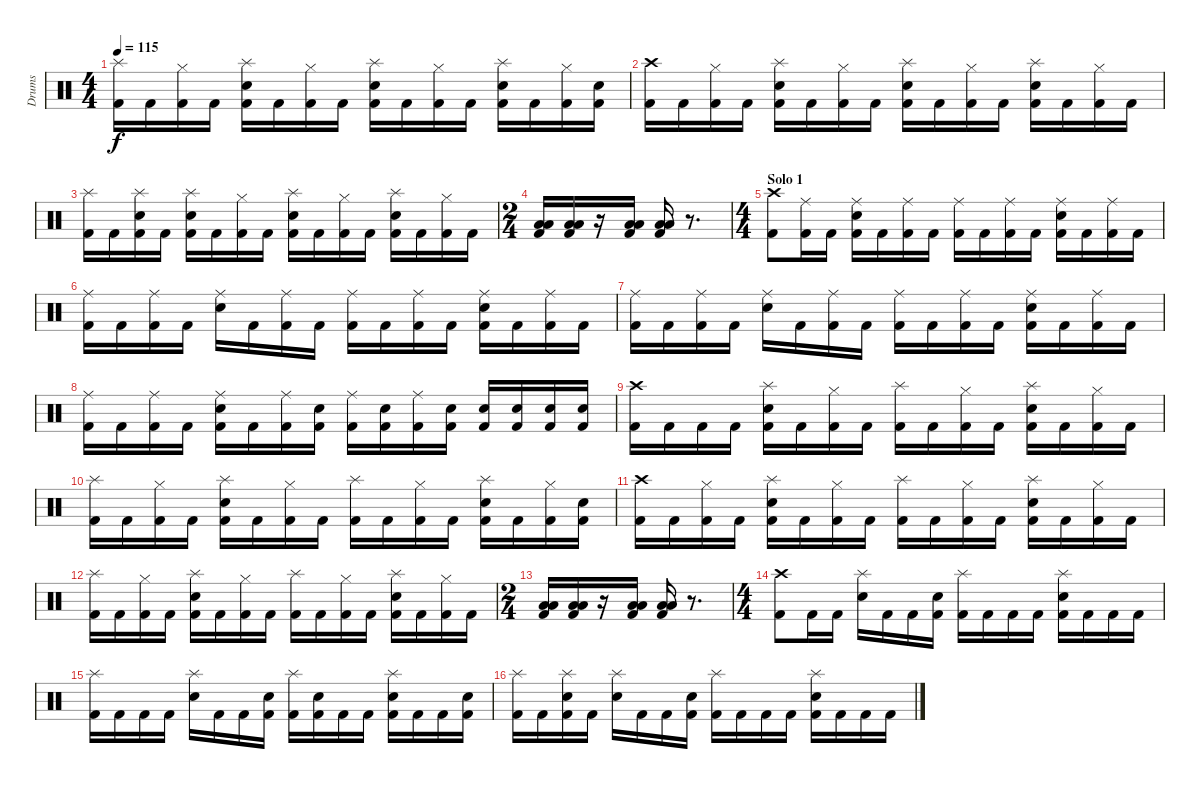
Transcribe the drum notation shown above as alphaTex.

\track ("Drums" "Drums") {instrument percussion}
\staff {score}
\articulation defaults
\ts (4 4)
\tempo 115
\clef neutral
\ks c
("Splash (hit)" "Kick (hit) 2").16{dy f} "Kick (hit) 2".16 ("Hi-Hat (closed)" "Kick (hit) 2").16 "Kick (hit) 2".16 ("Splash (hit)" "Snare (hit) 2" "Kick (hit) 2").16 "Kick (hit) 2".16 ("Hi-Hat (closed)" "Kick (hit) 2").16 "Kick (hit) 2".16 ("Splash (hit)" "Snare (hit) 2" "Kick (hit) 2").16 "Kick (hit) 2".16 ("Hi-Hat (closed)" "Kick (hit) 2").16 "Kick (hit) 2".16 ("Splash (hit)" "Snare (hit) 2" "Kick (hit) 2").16 "Kick (hit) 2".16 ("Hi-Hat (closed)" "Kick (hit) 2").16 ("Snare (hit) 2" "Kick (hit) 2").16 |
("Crash high (hit)" "Kick (hit) 2").16 "Kick (hit) 2".16 ("Hi-Hat (closed)" "Kick (hit) 2").16 "Kick (hit) 2".16 ("Splash (hit)" "Snare (hit) 2" "Kick (hit) 2").16 "Kick (hit) 2".16 ("Hi-Hat (closed)" "Kick (hit) 2").16 "Kick (hit) 2".16 ("Splash (hit)" "Snare (hit) 2" "Kick (hit) 2").16 "Kick (hit) 2".16 ("Hi-Hat (closed)" "Kick (hit) 2").16 "Kick (hit) 2".16 ("Splash (hit)" "Snare (hit) 2" "Kick (hit) 2").16 "Kick (hit) 2".16 ("Hi-Hat (closed)" "Kick (hit) 2").16 "Kick (hit) 2".16 |
("Splash (hit)" "Kick (hit) 2").16 "Kick (hit) 2".16 ("Splash (hit)" "Snare (hit) 2" "Kick (hit) 2").16 "Kick (hit) 2".16 ("Splash (hit)" "Snare (hit) 2" "Kick (hit) 2").16 "Kick (hit) 2".16 ("Hi-Hat (closed)" "Kick (hit) 2").16 "Kick (hit) 2".16 ("Splash (hit)" "Snare (hit) 2" "Kick (hit) 2").16 "Kick (hit) 2".16 ("Hi-Hat (closed)" "Kick (hit) 2").16 "Kick (hit) 2".16 ("Splash (hit)" "Snare (hit) 2" "Kick (hit) 2").16 "Kick (hit) 2".16 ("Hi-Hat (closed)" "Kick (hit) 2").16 "Kick (hit) 2".16 |
\ts (2 4)
("Low Tom (hit)" "Low Floor Tom (hit)" "Kick (hit) 2").16 ("Low Tom (hit)" "Low Floor Tom (hit)" "Kick (hit) 2").16 r.16 ("Low Tom (hit)" "Low Floor Tom (hit)" "Kick (hit) 2").16 ("Low Tom (hit)" "Low Floor Tom (hit)" "Kick (hit) 2").16 r.8{d} |
\ts (4 4)
\section ("" "Solo 1")
("Crash high (hit)" "Kick (hit) 2").8 ("Ride (middle)" "Kick (hit) 2").16 "Kick (hit) 2".16 ("Ride (middle)" "Snare (hit) 2" "Kick (hit) 2").16 "Kick (hit) 2".16 ("Ride (middle)" "Kick (hit) 2").16 "Kick (hit) 2".16 ("Ride (middle)" "Kick (hit) 2").16 "Kick (hit) 2".16 ("Ride (middle)" "Kick (hit) 2").16 "Kick (hit) 2".16 ("Ride (middle)" "Snare (hit) 2" "Kick (hit) 2").16 "Kick (hit) 2".16 ("Ride (middle)" "Kick (hit) 2").16 "Kick (hit) 2".16 |
("Ride (middle)" "Kick (hit) 2").16 "Kick (hit) 2".16 ("Ride (middle)" "Kick (hit) 2").16 "Kick (hit) 2".16 ("Ride (middle)" "Snare (hit) 2").16 "Kick (hit) 2".16 ("Ride (middle)" "Kick (hit) 2").16 "Kick (hit) 2".16 ("Ride (middle)" "Kick (hit) 2").16 "Kick (hit) 2".16 ("Ride (middle)" "Kick (hit) 2").16 "Kick (hit) 2".16 ("Ride (middle)" "Snare (hit) 2" "Kick (hit) 2").16 "Kick (hit) 2".16 ("Ride (middle)" "Kick (hit) 2").16 "Kick (hit) 2".16 |
("Ride (middle)" "Kick (hit) 2").16 "Kick (hit) 2".16 ("Ride (middle)" "Kick (hit) 2").16 "Kick (hit) 2".16 ("Ride (middle)" "Snare (hit) 2").16 "Kick (hit) 2".16 ("Ride (middle)" "Kick (hit) 2").16 "Kick (hit) 2".16 ("Ride (middle)" "Kick (hit) 2").16 "Kick (hit) 2".16 ("Ride (middle)" "Kick (hit) 2").16 "Kick (hit) 2".16 ("Ride (middle)" "Snare (hit) 2" "Kick (hit) 2").16 "Kick (hit) 2".16 ("Ride (middle)" "Kick (hit) 2").16 "Kick (hit) 2".16 |
("Ride (middle)" "Kick (hit) 2").16 "Kick (hit) 2".16 ("Ride (middle)" "Kick (hit) 2").16 "Kick (hit) 2".16 ("Ride (middle)" "Snare (hit) 2" "Kick (hit) 2").16 "Kick (hit) 2".16 ("Ride (middle)" "Kick (hit) 2").16 ("Snare (hit) 2" "Kick (hit) 2").16 ("Ride (middle)" "Kick (hit) 2").16 ("Snare (hit) 2" "Kick (hit) 2").16 ("Ride (middle)" "Kick (hit) 2").16 ("Snare (hit) 2" "Kick (hit) 2").16 ("Snare (hit) 2" "Kick (hit) 2").16 ("Snare (hit) 2" "Kick (hit) 2").16 ("Snare (hit) 2" "Kick (hit) 2").16 ("Snare (hit) 2" "Kick (hit) 2").16 |
("Crash high (hit)" "Kick (hit) 2").16 "Kick (hit) 2".16 "Kick (hit) 2".16 "Kick (hit) 2".16 ("Splash (hit)" "Snare (hit) 2" "Kick (hit) 2").16 "Kick (hit) 2".16 ("Hi-Hat (closed)" "Kick (hit) 2").16 "Kick (hit) 2".16 ("Splash (hit)" "Kick (hit) 2").16 "Kick (hit) 2".16 ("Hi-Hat (closed)" "Kick (hit) 2").16 "Kick (hit) 2".16 ("Splash (hit)" "Snare (hit) 2" "Kick (hit) 2").16 "Kick (hit) 2".16 ("Hi-Hat (closed)" "Kick (hit) 2").16 "Kick (hit) 2".16 |
("Splash (hit)" "Kick (hit) 2").16 "Kick (hit) 2".16 ("Hi-Hat (closed)" "Kick (hit) 2").16 "Kick (hit) 2".16 ("Splash (hit)" "Snare (hit) 2" "Kick (hit) 2").16 "Kick (hit) 2".16 ("Hi-Hat (closed)" "Kick (hit) 2").16 "Kick (hit) 2".16 ("Splash (hit)" "Kick (hit) 2").16 "Kick (hit) 2".16 ("Hi-Hat (closed)" "Kick (hit) 2").16 "Kick (hit) 2".16 ("Splash (hit)" "Snare (hit) 2" "Kick (hit) 2").16 "Kick (hit) 2".16 ("Hi-Hat (closed)" "Kick (hit) 2").16 ("Snare (hit) 2" "Kick (hit) 2").16 |
("Crash high (hit)" "Kick (hit) 2").16 "Kick (hit) 2".16 ("Hi-Hat (closed)" "Kick (hit) 2").16 "Kick (hit) 2".16 ("Splash (hit)" "Snare (hit) 2" "Kick (hit) 2").16 "Kick (hit) 2".16 ("Hi-Hat (closed)" "Kick (hit) 2").16 "Kick (hit) 2".16 ("Splash (hit)" "Kick (hit) 2").16 "Kick (hit) 2".16 ("Hi-Hat (closed)" "Kick (hit) 2").16 "Kick (hit) 2".16 ("Splash (hit)" "Snare (hit) 2" "Kick (hit) 2").16 "Kick (hit) 2".16 ("Hi-Hat (closed)" "Kick (hit) 2").16 "Kick (hit) 2".16 |
("Splash (hit)" "Kick (hit) 2").16 "Kick (hit) 2".16 ("Hi-Hat (closed)" "Kick (hit) 2").16 "Kick (hit) 2".16 ("Splash (hit)" "Snare (hit) 2" "Kick (hit) 2").16 "Kick (hit) 2".16 ("Hi-Hat (closed)" "Kick (hit) 2").16 "Kick (hit) 2".16 ("Splash (hit)" "Kick (hit) 2").16 "Kick (hit) 2".16 ("Hi-Hat (closed)" "Kick (hit) 2").16 "Kick (hit) 2".16 ("Splash (hit)" "Snare (hit) 2" "Kick (hit) 2").16 "Kick (hit) 2".16 ("Hi-Hat (closed)" "Kick (hit) 2").16 "Kick (hit) 2".16 |
\ts (2 4)
("Low Tom (hit)" "Low Floor Tom (hit)" "Kick (hit) 2").16 ("Low Tom (hit)" "Low Floor Tom (hit)" "Kick (hit) 2").16 r.16 ("Low Tom (hit)" "Low Floor Tom (hit)" "Kick (hit) 2").16 ("Low Tom (hit)" "Low Floor Tom (hit)" "Kick (hit) 2").16 r.8{d} |
\ts (4 4)
("Crash high (hit)" "Kick (hit) 2").8 "Kick (hit) 2".16 "Kick (hit) 2".16 ("Splash (hit)" "Snare (hit) 2").16 "Kick (hit) 2".16 "Kick (hit) 2".16 ("Snare (hit) 2" "Kick (hit) 2").16 ("Splash (hit)" "Kick (hit) 2").16 "Kick (hit) 2".16 "Kick (hit) 2".16 "Kick (hit) 2".16 ("Splash (hit)" "Snare (hit) 2" "Kick (hit) 2").16 "Kick (hit) 2".16 "Kick (hit) 2".16 "Kick (hit) 2".16 |
("Splash (hit)" "Kick (hit) 2").16 "Kick (hit) 2".16 "Kick (hit) 2".16 "Kick (hit) 2".16 ("Splash (hit)" "Snare (hit) 2").16 "Kick (hit) 2".16 "Kick (hit) 2".16 ("Snare (hit) 2" "Kick (hit) 2").16 ("Splash (hit)" "Kick (hit) 2").16 ("Snare (hit) 2" "Kick (hit) 2").16 "Kick (hit) 2".16 "Kick (hit) 2".16 ("Splash (hit)" "Snare (hit) 2" "Kick (hit) 2").16 "Kick (hit) 2".16 "Kick (hit) 2".16 ("Snare (hit) 2" "Kick (hit) 2").16 |
("Splash (hit)" "Kick (hit) 2").16 "Kick (hit) 2".16 ("Splash (hit)" "Snare (hit) 2" "Kick (hit) 2").16 "Kick (hit) 2".16 ("Splash (hit)" "Snare (hit) 2").16 "Kick (hit) 2".16 "Kick (hit) 2".16 ("Snare (hit) 2" "Kick (hit) 2").16 ("Splash (hit)" "Kick (hit) 2").16 "Kick (hit) 2".16 "Kick (hit) 2".16 "Kick (hit) 2".16 ("Splash (hit)" "Snare (hit) 2" "Kick (hit) 2").16 "Kick (hit) 2".16 "Kick (hit) 2".16 "Kick (hit) 2".16
